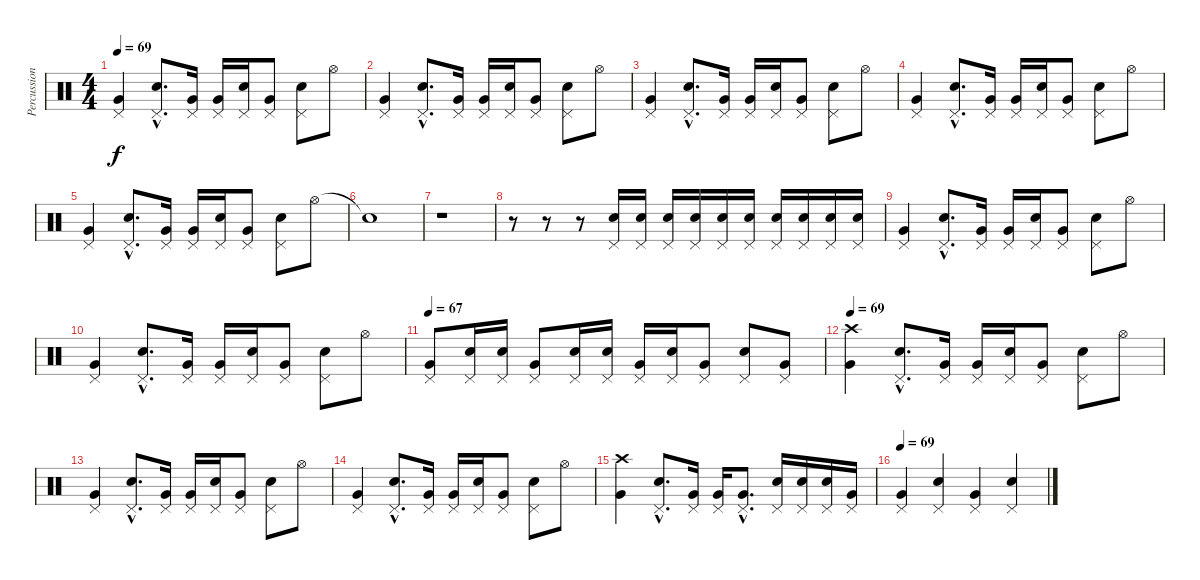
\track ("Percussion" "Percussion") {instrument percussion}
\staff {score}
\articulation defaults
\ts (4 4)
\tempo 69
\clef neutral
\ks c
("Pedal Hi-Hat (hit)" "Very Low Tom (hit)").4{dy f} ("Pedal Hi-Hat (hit)"{hac} "Electric Snare (hit)"{hac}).8{d} ("Pedal Hi-Hat (hit)" "Very Low Tom (hit)").16 ("Pedal Hi-Hat (hit)" "Very Low Tom (hit)").16 ("Pedal Hi-Hat (hit)" "Electric Snare (hit)").16 ("Pedal Hi-Hat (hit)" "Very Low Tom (hit)").8 ("Pedal Hi-Hat (hit)" "Electric Snare (hit)").8 "Hi-Hat (open)".8 |
("Pedal Hi-Hat (hit)" "Very Low Tom (hit)").4 ("Pedal Hi-Hat (hit)"{hac} "Electric Snare (hit)"{hac}).8{d} ("Pedal Hi-Hat (hit)" "Very Low Tom (hit)").16 ("Pedal Hi-Hat (hit)" "Very Low Tom (hit)").16 ("Pedal Hi-Hat (hit)" "Electric Snare (hit)").16 ("Pedal Hi-Hat (hit)" "Very Low Tom (hit)").8 ("Pedal Hi-Hat (hit)" "Electric Snare (hit)").8 "Hi-Hat (open)".8 |
("Pedal Hi-Hat (hit)" "Very Low Tom (hit)").4 ("Pedal Hi-Hat (hit)"{hac} "Electric Snare (hit)"{hac}).8{d} ("Pedal Hi-Hat (hit)" "Very Low Tom (hit)").16 ("Pedal Hi-Hat (hit)" "Very Low Tom (hit)").16 ("Pedal Hi-Hat (hit)" "Electric Snare (hit)").16 ("Pedal Hi-Hat (hit)" "Very Low Tom (hit)").8 ("Pedal Hi-Hat (hit)" "Electric Snare (hit)").8 "Hi-Hat (open)".8 |
("Pedal Hi-Hat (hit)" "Very Low Tom (hit)").4 ("Pedal Hi-Hat (hit)"{hac} "Electric Snare (hit)"{hac}).8{d} ("Pedal Hi-Hat (hit)" "Very Low Tom (hit)").16 ("Pedal Hi-Hat (hit)" "Very Low Tom (hit)").16 ("Pedal Hi-Hat (hit)" "Electric Snare (hit)").16 ("Pedal Hi-Hat (hit)" "Very Low Tom (hit)").8 ("Pedal Hi-Hat (hit)" "Electric Snare (hit)").8 "Hi-Hat (open)".8 |
("Pedal Hi-Hat (hit)" "Very Low Tom (hit)").4 ("Pedal Hi-Hat (hit)"{hac} "Electric Snare (hit)"{hac}).8{d} ("Pedal Hi-Hat (hit)" "Very Low Tom (hit)").16 ("Pedal Hi-Hat (hit)" "Very Low Tom (hit)").16 ("Pedal Hi-Hat (hit)" "Electric Snare (hit)").16 ("Pedal Hi-Hat (hit)" "Very Low Tom (hit)").8 ("Pedal Hi-Hat (hit)" "Electric Snare (hit)").8 "Hi-Hat (open)".8 |
"Snare (hit)"{t}.1 |
r.1 |
r.8 r.8 r.8 ("Pedal Hi-Hat (hit)" "Electric Snare (hit)").16 ("Pedal Hi-Hat (hit)" "Electric Snare (hit)").16 ("Pedal Hi-Hat (hit)" "Electric Snare (hit)").16 ("Pedal Hi-Hat (hit)" "Electric Snare (hit)").16 ("Pedal Hi-Hat (hit)" "Electric Snare (hit)").16 ("Pedal Hi-Hat (hit)" "Electric Snare (hit)").16 ("Pedal Hi-Hat (hit)" "Electric Snare (hit)").16 ("Pedal Hi-Hat (hit)" "Electric Snare (hit)").16 ("Pedal Hi-Hat (hit)" "Electric Snare (hit)").16 ("Pedal Hi-Hat (hit)" "Electric Snare (hit)").16 |
("Pedal Hi-Hat (hit)" "Very Low Tom (hit)").4 ("Pedal Hi-Hat (hit)"{hac} "Electric Snare (hit)"{hac}).8{d} ("Pedal Hi-Hat (hit)" "Very Low Tom (hit)").16 ("Pedal Hi-Hat (hit)" "Very Low Tom (hit)").16 ("Pedal Hi-Hat (hit)" "Electric Snare (hit)").16 ("Pedal Hi-Hat (hit)" "Very Low Tom (hit)").8 ("Pedal Hi-Hat (hit)" "Electric Snare (hit)").8 "Hi-Hat (open)".8 |
("Pedal Hi-Hat (hit)" "Very Low Tom (hit)").4 ("Pedal Hi-Hat (hit)"{hac} "Electric Snare (hit)"{hac}).8{d} ("Pedal Hi-Hat (hit)" "Very Low Tom (hit)").16 ("Pedal Hi-Hat (hit)" "Very Low Tom (hit)").16 ("Pedal Hi-Hat (hit)" "Electric Snare (hit)").16 ("Pedal Hi-Hat (hit)" "Very Low Tom (hit)").8 ("Pedal Hi-Hat (hit)" "Electric Snare (hit)").8 "Hi-Hat (open)".8 |
\tempo 67
("Pedal Hi-Hat (hit)" "Very Low Tom (hit)").8 ("Pedal Hi-Hat (hit)" "Electric Snare (hit)").16 ("Pedal Hi-Hat (hit)" "Electric Snare (hit)").16 ("Pedal Hi-Hat (hit)" "Very Low Tom (hit)").8 ("Pedal Hi-Hat (hit)" "Electric Snare (hit)").16 ("Pedal Hi-Hat (hit)" "Electric Snare (hit)").16 ("Pedal Hi-Hat (hit)" "Very Low Tom (hit)").16 ("Pedal Hi-Hat (hit)" "Electric Snare (hit)").16 ("Pedal Hi-Hat (hit)" "Very Low Tom (hit)").8 ("Pedal Hi-Hat (hit)" "Electric Snare (hit)").8 ("Pedal Hi-Hat (hit)" "Very Low Tom (hit)").8 |
\tempo 69
("Crash high (hit)" "Very Low Tom (hit)").4 ("Pedal Hi-Hat (hit)"{hac} "Electric Snare (hit)"{hac}).8{d} ("Pedal Hi-Hat (hit)" "Very Low Tom (hit)").16 ("Pedal Hi-Hat (hit)" "Very Low Tom (hit)").16 ("Pedal Hi-Hat (hit)" "Electric Snare (hit)").16 ("Pedal Hi-Hat (hit)" "Very Low Tom (hit)").8 ("Pedal Hi-Hat (hit)" "Electric Snare (hit)").8 "Hi-Hat (open)".8 |
("Pedal Hi-Hat (hit)" "Very Low Tom (hit)").4 ("Pedal Hi-Hat (hit)"{hac} "Electric Snare (hit)"{hac}).8{d} ("Pedal Hi-Hat (hit)" "Very Low Tom (hit)").16 ("Pedal Hi-Hat (hit)" "Very Low Tom (hit)").16 ("Pedal Hi-Hat (hit)" "Electric Snare (hit)").16 ("Pedal Hi-Hat (hit)" "Very Low Tom (hit)").8 ("Pedal Hi-Hat (hit)" "Electric Snare (hit)").8 "Hi-Hat (open)".8 |
("Pedal Hi-Hat (hit)" "Very Low Tom (hit)").4 ("Pedal Hi-Hat (hit)"{hac} "Electric Snare (hit)"{hac}).8{d} ("Pedal Hi-Hat (hit)" "Very Low Tom (hit)").16 ("Pedal Hi-Hat (hit)" "Very Low Tom (hit)").16 ("Pedal Hi-Hat (hit)" "Electric Snare (hit)").16 ("Pedal Hi-Hat (hit)" "Very Low Tom (hit)").8 ("Pedal Hi-Hat (hit)" "Electric Snare (hit)").8 "Hi-Hat (open)".8 |
("Crash high (hit)" "Very Low Tom (hit)").4 ("Pedal Hi-Hat (hit)"{hac} "Electric Snare (hit)"{hac}).8{d} ("Pedal Hi-Hat (hit)" "Very Low Tom (hit)").16 ("Pedal Hi-Hat (hit)" "Very Low Tom (hit)").16 ("Pedal Hi-Hat (hit)"{hac} "Very Low Tom (hit)"{hac}).8{d} ("Pedal Hi-Hat (hit)" "Electric Snare (hit)").16 ("Pedal Hi-Hat (hit)" "Electric Snare (hit)").16 ("Pedal Hi-Hat (hit)" "Electric Snare (hit)").16 ("Pedal Hi-Hat (hit)" "Very Low Tom (hit)").16 |
\tempo 69
("Pedal Hi-Hat (hit)" "Very Low Tom (hit)").4 ("Pedal Hi-Hat (hit)" "Electric Snare (hit)").4 ("Pedal Hi-Hat (hit)" "Very Low Tom (hit)").4 ("Pedal Hi-Hat (hit)" "Electric Snare (hit)").4
